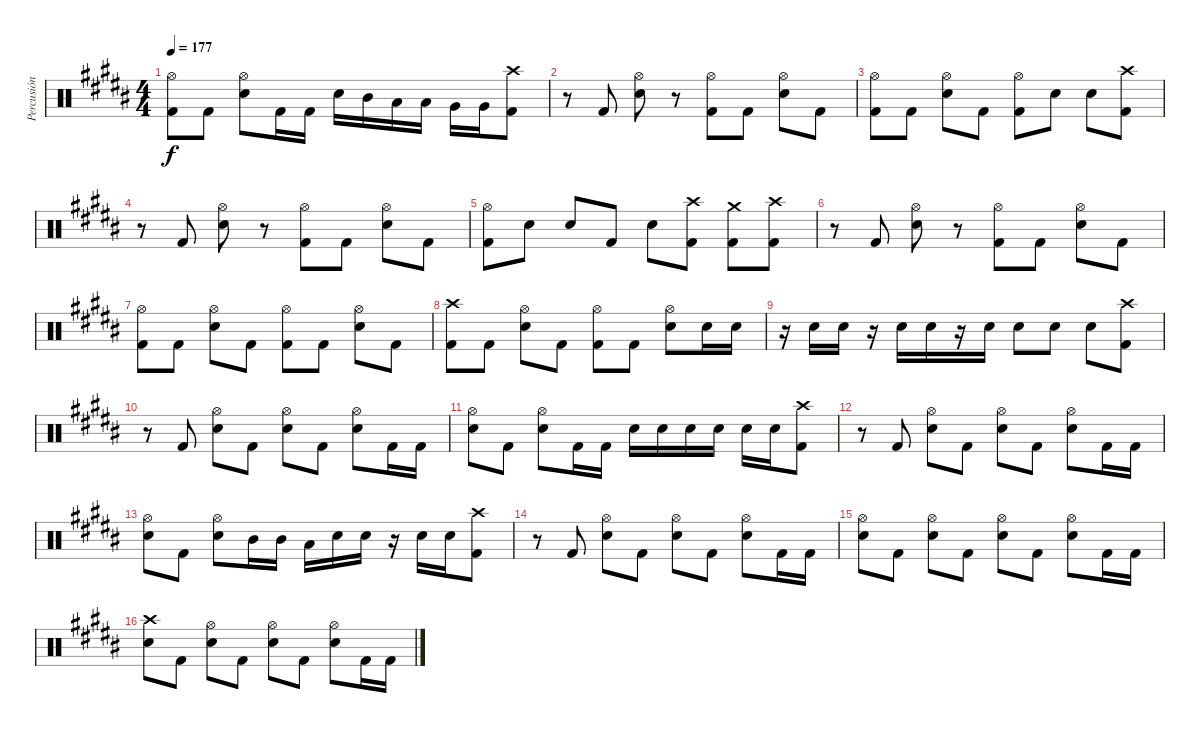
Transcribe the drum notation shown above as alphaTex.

\track ("Percusión" "Percusión") {instrument percussion}
\staff {score}
\articulation defaults
\ts (4 4)
\tempo 177
\clef neutral
\ks g#minor
("Kick (hit) 2" "Hi-Hat (open)").8{dy f} "Kick (hit) 2".8 ("Snare (hit) 2" "Hi-Hat (open)").8 "Kick (hit) 2".16 "Kick (hit) 2".16 "Snare (hit) 2".16 "Mid Tom (hit)".16 "Low Tom (hit)".16 "Low Tom (hit)".16 "Very Low Tom (hit)".16 "Very Low Tom (hit)".16 ("Kick (hit) 2" "Crash high (hit)").8 |
r.8 "Kick (hit) 2".8 ("Snare (hit) 2" "Hi-Hat (open)").8 r.8 ("Kick (hit) 2" "Hi-Hat (open)").8 "Kick (hit) 2".8 ("Snare (hit) 2" "Hi-Hat (open)").8 "Kick (hit) 2".8 |
("Kick (hit) 2" "Hi-Hat (open)").8 "Kick (hit) 2".8 ("Snare (hit) 2" "Hi-Hat (open)").8 "Kick (hit) 2".8 ("Kick (hit) 2" "Hi-Hat (open)").8 "Snare (hit) 2".8 "Snare (hit) 2".8 ("Kick (hit) 2" "Crash high (hit)").8 |
r.8 "Kick (hit) 2".8 ("Snare (hit) 2" "Hi-Hat (open)").8 r.8 ("Kick (hit) 2" "Hi-Hat (open)").8 "Kick (hit) 2".8 ("Snare (hit) 2" "Hi-Hat (open)").8 "Kick (hit) 2".8 |
("Kick (hit) 2" "Hi-Hat (open)").8 "Snare (hit) 2".8 "Snare (hit) 2".8 "Kick (hit) 2".8 "Snare (hit) 2".8 ("Kick (hit) 2" "Crash high (hit)").8 ("Kick (hit) 2" "Crash medium (hit)").8 ("Kick (hit) 2" "Crash high (hit)").8 |
r.8 "Kick (hit) 2".8 ("Snare (hit) 2" "Hi-Hat (open)").8 r.8 ("Kick (hit) 2" "Hi-Hat (open)").8 "Kick (hit) 2".8 ("Snare (hit) 2" "Hi-Hat (open)").8 "Kick (hit) 2".8 |
("Kick (hit) 2" "Hi-Hat (open)").8 "Kick (hit) 2".8 ("Snare (hit) 2" "Hi-Hat (open)").8 "Kick (hit) 2".8 ("Kick (hit) 2" "Hi-Hat (open)").8 "Kick (hit) 2".8 ("Snare (hit) 2" "Hi-Hat (open)").8 "Kick (hit) 2".8 |
("Kick (hit) 2" "Crash high (hit)").8 "Kick (hit) 2".8 ("Snare (hit) 2" "Hi-Hat (open)").8 "Kick (hit) 2".8 ("Kick (hit) 2" "Hi-Hat (open)").8 "Kick (hit) 2".8 ("Snare (hit) 2" "Hi-Hat (open)").8 "Snare (hit) 2".16 "Snare (hit) 2".16 |
r.16 "Snare (hit) 2".16 "Snare (hit) 2".16 r.16 "Snare (hit) 2".16 "Snare (hit) 2".16 r.16 "Snare (hit) 2".16 "Snare (hit) 2".8 "Snare (hit) 2".8 "Snare (hit) 2".8 ("Kick (hit) 2" "Crash high (hit)").8 |
r.8 "Kick (hit) 2".8 ("Snare (hit) 2" "Hi-Hat (open)").8 "Kick (hit) 2".8 ("Snare (hit) 2" "Hi-Hat (open)").8 "Kick (hit) 2".8 ("Snare (hit) 2" "Hi-Hat (open)").8 "Kick (hit) 2".16 "Kick (hit) 2".16 |
("Snare (hit) 2" "Hi-Hat (open)").8 "Kick (hit) 2".8 ("Snare (hit) 2" "Hi-Hat (open)").8 "Kick (hit) 2".16 "Kick (hit) 2".16 "Snare (hit) 2".16 "Snare (hit) 2".16 "Snare (hit) 2".16 "Snare (hit) 2".16 "Snare (hit) 2".16 "Snare (hit) 2".16 ("Kick (hit) 2" "Crash high (hit)").8 |
r.8 "Kick (hit) 2".8 ("Snare (hit) 2" "Hi-Hat (open)").8 "Kick (hit) 2".8 ("Snare (hit) 2" "Hi-Hat (open)").8 "Kick (hit) 2".8 ("Snare (hit) 2" "Hi-Hat (open)").8 "Kick (hit) 2".16 "Kick (hit) 2".16 |
("Snare (hit) 2" "Hi-Hat (open)").8 "Kick (hit) 2".8 ("Snare (hit) 2" "Hi-Hat (open)").8 "Mid Tom (hit)".16 "Mid Tom (hit)".16 "Low Tom (hit)".16 "Snare (hit) 2".16 "Snare (hit) 2".16 r.16 "Snare (hit) 2".16 "Snare (hit) 2".16 ("Kick (hit) 2" "Crash high (hit)").8 |
r.8 "Kick (hit) 2".8 ("Snare (hit) 2" "Hi-Hat (open)").8 "Kick (hit) 2".8 ("Snare (hit) 2" "Hi-Hat (open)").8 "Kick (hit) 2".8 ("Snare (hit) 2" "Hi-Hat (open)").8 "Kick (hit) 2".16 "Kick (hit) 2".16 |
("Snare (hit) 2" "Hi-Hat (open)").8 "Kick (hit) 2".8 ("Snare (hit) 2" "Hi-Hat (open)").8 "Kick (hit) 2".8 ("Snare (hit) 2" "Hi-Hat (open)").8 "Kick (hit) 2".8 ("Snare (hit) 2" "Hi-Hat (open)").8 "Kick (hit) 2".16 "Kick (hit) 2".16 |
("Snare (hit) 2" "Crash high (hit)").8 "Kick (hit) 2".8 ("Snare (hit) 2" "Hi-Hat (open)").8 "Kick (hit) 2".8 ("Snare (hit) 2" "Hi-Hat (open)").8 "Kick (hit) 2".8 ("Snare (hit) 2" "Hi-Hat (open)").8 "Kick (hit) 2".16 "Kick (hit) 2".16
